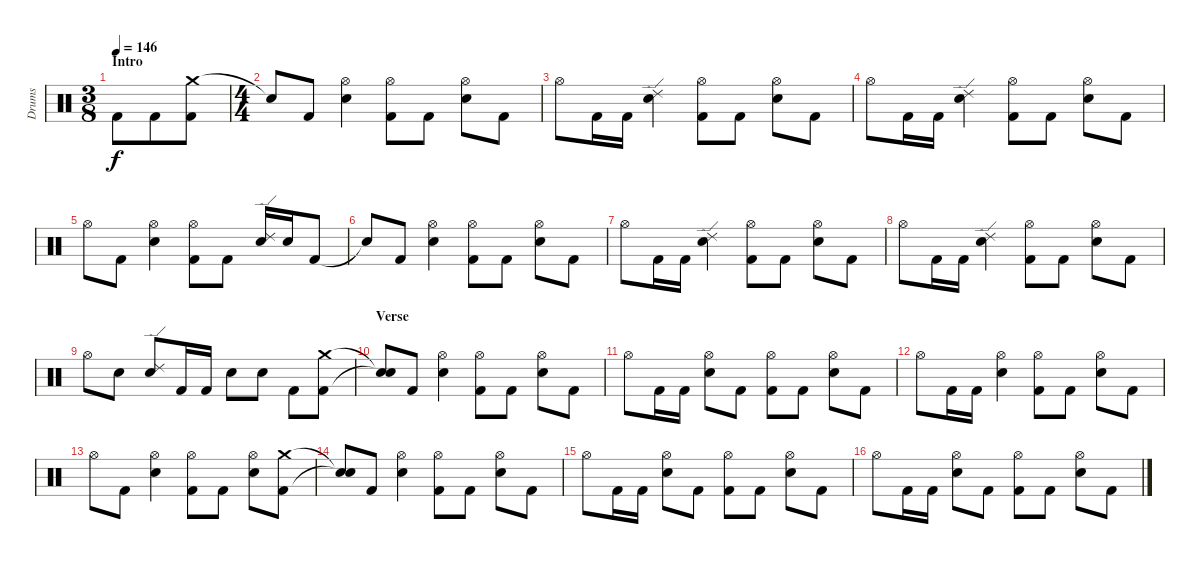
\track ("Drums" "Drums") {instrument percussion}
\staff {score}
\articulation defaults
\ts (3 8)
\section ("" "Intro")
\tempo 146
\clef neutral
\ks c "Kick (hit) 2".8{dy f} "Kick (hit) 2".8
("Crash medium (hit)" "Kick (hit) 2").8 |
\ts (4 4)
"Snare (hit)"{t}.8 "Kick (hit) 2".8 ("Hi-Hat (open)" "Electric Snare (hit)").4 ("Hi-Hat (open)" "Kick (hit) 2").8 "Kick (hit) 2".8 ("Hi-Hat (open)" "Electric Snare (hit)").8 "Kick (hit) 2".8 |
"Hi-Hat (open)".8 "Kick (hit) 2".16 "Kick (hit) 2".16 ("Ride (edge) 2" "Electric Snare (hit)").4 ("Hi-Hat (open)" "Kick (hit) 2").8 "Kick (hit) 2".8 ("Hi-Hat (open)" "Electric Snare (hit)").8 "Kick (hit) 2".8 |
"Hi-Hat (open)".8 "Kick (hit) 2".16 "Kick (hit) 2".16 ("Ride (edge) 2" "Electric Snare (hit)").4 ("Hi-Hat (open)" "Kick (hit) 2").8 "Kick (hit) 2".8 ("Hi-Hat (open)" "Electric Snare (hit)").8 "Kick (hit) 2".8 |
"Hi-Hat (open)".8 "Kick (hit) 2".8 ("Hi-Hat (open)" "Electric Snare (hit)").4 ("Hi-Hat (open)" "Kick (hit) 2").8 "Kick (hit) 2".8 ("Ride (edge) 2" "Electric Snare (hit)").16 "Electric Snare (hit)".16 "Kick (hit) 2".8 |
"Snare (hit)"{t}.8 "Kick (hit) 2".8 ("Hi-Hat (open)" "Electric Snare (hit)").4 ("Hi-Hat (open)" "Kick (hit) 2").8 "Kick (hit) 2".8 ("Hi-Hat (open)" "Electric Snare (hit)").8 "Kick (hit) 2".8 |
"Hi-Hat (open)".8 "Kick (hit) 2".16 "Kick (hit) 2".16 ("Ride (edge) 2" "Electric Snare (hit)").4 ("Hi-Hat (open)" "Kick (hit) 2").8 "Kick (hit) 2".8 ("Hi-Hat (open)" "Electric Snare (hit)").8 "Kick (hit) 2".8 |
"Hi-Hat (open)".8 "Kick (hit) 2".16 "Kick (hit) 2".16 ("Ride (edge) 2" "Electric Snare (hit)").4 ("Hi-Hat (open)" "Kick (hit) 2").8 "Kick (hit) 2".8 ("Hi-Hat (open)" "Electric Snare (hit)").8 "Kick (hit) 2".8 |
"Hi-Hat (open)".8 "Electric Snare (hit)".8 ("Ride (edge) 2" "Electric Snare (hit)").8 "Kick (hit) 2".16 "Kick (hit) 2".16 "Electric Snare (hit)".8 "Electric Snare (hit)".8 "Kick (hit) 2".8 ("Crash medium (hit)" "Kick (hit) 2").8 |
\section ("" "Verse")
("Snare (hit)"{t} "Snare (hit)"{t}).8 "Kick (hit) 2".8 ("Hi-Hat (open)" "Electric Snare (hit)").4 ("Hi-Hat (open)" "Kick (hit) 2").8 "Kick (hit) 2".8 ("Hi-Hat (open)" "Electric Snare (hit)").8 "Kick (hit) 2".8 |
"Hi-Hat (open)".8 "Kick (hit) 2".16 "Kick (hit) 2".16 ("Hi-Hat (open)" "Electric Snare (hit)").8 "Kick (hit) 2".8 ("Hi-Hat (open)" "Kick (hit) 2").8 "Kick (hit) 2".8 ("Hi-Hat (open)" "Electric Snare (hit)").8 "Kick (hit) 2".8 |
"Hi-Hat (open)".8 "Kick (hit) 2".16 "Kick (hit) 2".16 ("Hi-Hat (open)" "Electric Snare (hit)").4 ("Hi-Hat (open)" "Kick (hit) 2").8 "Kick (hit) 2".8 ("Hi-Hat (open)" "Electric Snare (hit)").8 "Kick (hit) 2".8 |
"Hi-Hat (open)".8 "Kick (hit) 2".8 ("Hi-Hat (open)" "Electric Snare (hit)").4 ("Hi-Hat (open)" "Kick (hit) 2").8 "Kick (hit) 2".8 ("Hi-Hat (open)" "Electric Snare (hit)").8 ("Crash medium (hit)" "Kick (hit) 2").8 |
("Snare (hit)"{t} "Snare (hit)"{t}).8 "Kick (hit) 2".8 ("Hi-Hat (open)" "Electric Snare (hit)").4 ("Hi-Hat (open)" "Kick (hit) 2").8 "Kick (hit) 2".8 ("Hi-Hat (open)" "Electric Snare (hit)").8 "Kick (hit) 2".8 |
"Hi-Hat (open)".8 "Kick (hit) 2".16 "Kick (hit) 2".16 ("Hi-Hat (open)" "Electric Snare (hit)").8 "Kick (hit) 2".8 ("Hi-Hat (open)" "Kick (hit) 2").8 "Kick (hit) 2".8 ("Hi-Hat (open)" "Electric Snare (hit)").8 "Kick (hit) 2".8 |
"Hi-Hat (open)".8 "Kick (hit) 2".16 "Kick (hit) 2".16 ("Hi-Hat (open)" "Electric Snare (hit)").8 "Kick (hit) 2".8 ("Hi-Hat (open)" "Kick (hit) 2").8 "Kick (hit) 2".8 ("Hi-Hat (open)" "Electric Snare (hit)").8 "Kick (hit) 2".8
